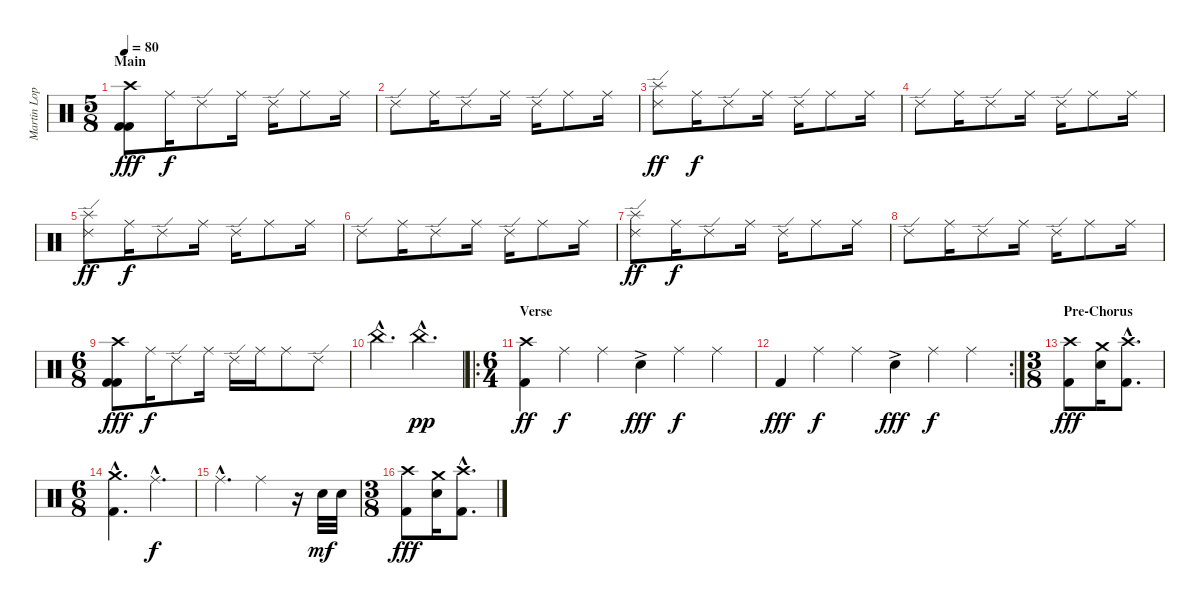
\track ("Martin Lopez" "Martin Lop") {instrument percussion}
\staff {score}
\articulation defaults
\ts (5 8)
\section ("" "Main")
\tempo 80
\clef neutral
\ks c
("Crash high (hit)" "Kick (hit) 2" "Kick (hit) 2").8{dy fff volume 6} "Ride (middle)".16{dy f} "Ride (edge) 2".8 "Ride (middle)".16 "Ride (edge) 2".16 "Ride (middle)".8 "Ride (middle)".16 |
"Ride (edge) 2".8 "Ride (middle)".16 "Ride (edge) 2".8 "Ride (middle)".16 "Ride (edge) 2".16 "Ride (middle)".8 "Ride (middle)".16 |
("Ride (edge) 2" "Splash (hit)").8{dy ff} "Ride (middle)".16{dy f} "Ride (edge) 2".8 "Ride (middle)".16 "Ride (edge) 2".16 "Ride (middle)".8 "Ride (middle)".16 |
"Ride (edge) 2".8 "Ride (middle)".16 "Ride (edge) 2".8 "Ride (middle)".16 "Ride (edge) 2".16 "Ride (middle)".8 "Ride (middle)".16 |
("Ride (edge) 2" "Splash (hit)").8{dy ff} "Ride (middle)".16{dy f} "Ride (edge) 2".8 "Ride (middle)".16 "Ride (edge) 2".16 "Ride (middle)".8 "Ride (middle)".16 |
"Ride (edge) 2".8 "Ride (middle)".16 "Ride (edge) 2".8 "Ride (middle)".16 "Ride (edge) 2".16 "Ride (middle)".8 "Ride (middle)".16 |
("Ride (edge) 2" "Splash (hit)").8{dy ff} "Ride (middle)".16{dy f} "Ride (edge) 2".8 "Ride (middle)".16 "Ride (edge) 2".16 "Ride (middle)".8 "Ride (middle)".16 |
"Ride (edge) 2".8 "Ride (middle)".16 "Ride (edge) 2".8 "Ride (middle)".16 "Ride (edge) 2".16 "Ride (middle)".8 "Ride (middle)".16 |
\ts (6 8)
("Crash high (hit)" "Kick (hit) 2" "Kick (hit) 2").8{dy fff} "Ride (middle)".16{dy f} "Ride (edge) 2".8 "Ride (middle)".16 "Ride (edge) 2".16 "Ride (middle)".16 "Ride (middle)".8 "Ride (edge) 2".8 |
"China (hit)"{hac}.4{d} "China (hit)"{hac}.4{d dy pp} |
\ro
\ts (6 4)
\section ("" "Verse")
("Crash high (hit)" "Kick (hit) 2").4{dy ff} "Ride (middle)".4{dy f} "Ride (middle)".4 "Electric Snare (hit)"{ac}.4{dy fff} "Ride (middle)".4{dy f} "Ride (middle)".4 |
\rc 2 "Kick (hit) 2".4{dy fff} "Ride (middle)".4{dy f} "Ride (middle)".4 "Electric Snare (hit)"{ac}.4{dy fff} "Ride (middle)".4{dy f} "Ride (middle)".4
|
\ts (3 8)
\section ("" "Pre-Chorus")
("Crash high (hit)" "Kick (hit) 2").8{dy fff} ("Crash medium (hit)" "Electric Snare (hit)").16 ("Crash high (hit)"{hac} "Kick (hit) 2"{hac}).8{d} |
\ts (6 8)
("Crash medium (hit)"{hac} "Kick (hit) 2"{hac}).4{d} "Ride (middle)"{hac}.4{d dy f} |
"Ride (middle)"{hac}.4{d} "Ride (middle)".4 r.16 "Electric Snare (hit)".32{dy mf} "Electric Snare (hit)".32 |
\ts (3 8)
("Crash high (hit)" "Kick (hit) 2").8{dy fff} ("Crash medium (hit)" "Electric Snare (hit)").16 ("Crash high (hit)"{hac} "Kick (hit) 2"{hac}).8{d}
